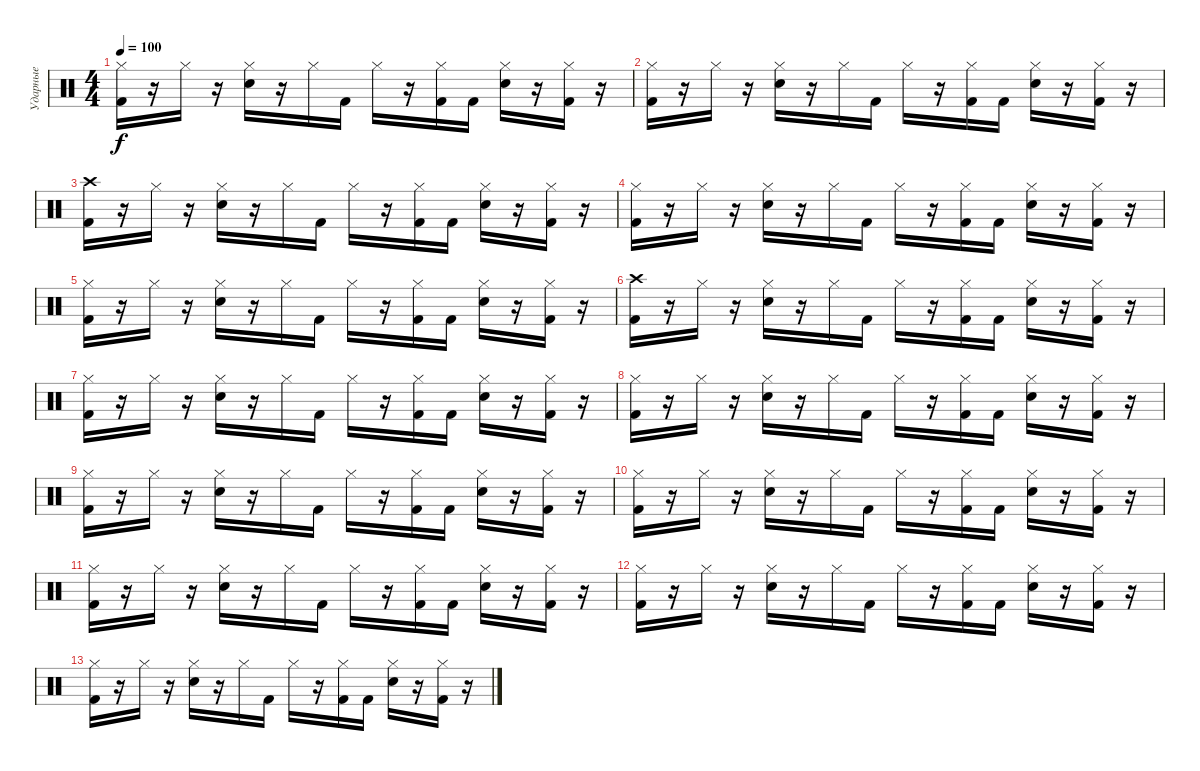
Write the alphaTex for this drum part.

\track ("Ударные" "Ударные") {instrument percussion}
\staff {score}
\articulation defaults
\ts (4 4)
\tempo 100
\clef neutral
\ks c
("Kick (hit) 2" "Hi-Hat (closed)").16{dy f} r.16 "Hi-Hat (closed)".16 r.16 ("Electric Snare (hit)" "Hi-Hat (closed)").16 r.16 "Hi-Hat (closed)".16 "Kick (hit) 2".16 "Hi-Hat (closed)".16 r.16 ("Kick (hit) 2" "Hi-Hat (closed)").16 "Kick (hit) 2".16 ("Electric Snare (hit)" "Hi-Hat (closed)").16 r.16 ("Kick (hit) 2" "Hi-Hat (closed)").16 r.16 |
("Kick (hit) 2" "Hi-Hat (closed)").16 r.16 "Hi-Hat (closed)".16 r.16 ("Electric Snare (hit)" "Hi-Hat (closed)").16 r.16 "Hi-Hat (closed)".16 "Kick (hit) 2".16 "Hi-Hat (closed)".16 r.16 ("Kick (hit) 2" "Hi-Hat (closed)").16 "Kick (hit) 2".16 ("Electric Snare (hit)" "Hi-Hat (closed)").16 r.16 ("Kick (hit) 2" "Hi-Hat (closed)").16 r.16 |
("Kick (hit) 2" "Crash high (hit)").16 r.16 "Hi-Hat (closed)".16 r.16 ("Electric Snare (hit)" "Hi-Hat (closed)").16 r.16 "Hi-Hat (closed)".16 "Kick (hit) 2".16 "Hi-Hat (closed)".16 r.16 ("Kick (hit) 2" "Hi-Hat (closed)").16 "Kick (hit) 2".16 ("Electric Snare (hit)" "Hi-Hat (closed)").16 r.16 ("Kick (hit) 2" "Hi-Hat (closed)").16 r.16 |
("Kick (hit) 2" "Hi-Hat (closed)").16 r.16 "Hi-Hat (closed)".16 r.16 ("Electric Snare (hit)" "Hi-Hat (closed)").16 r.16 "Hi-Hat (closed)".16 "Kick (hit) 2".16 "Hi-Hat (closed)".16 r.16 ("Kick (hit) 2" "Hi-Hat (closed)").16 "Kick (hit) 2".16 ("Electric Snare (hit)" "Hi-Hat (closed)").16 r.16 ("Kick (hit) 2" "Hi-Hat (closed)").16 r.16 |
("Kick (hit) 2" "Hi-Hat (closed)").16 r.16 "Hi-Hat (closed)".16 r.16 ("Electric Snare (hit)" "Hi-Hat (closed)").16 r.16 "Hi-Hat (closed)".16 "Kick (hit) 2".16 "Hi-Hat (closed)".16 r.16 ("Kick (hit) 2" "Hi-Hat (closed)").16 "Kick (hit) 2".16 ("Electric Snare (hit)" "Hi-Hat (closed)").16 r.16 ("Kick (hit) 2" "Hi-Hat (closed)").16 r.16 |
("Kick (hit) 2" "Crash high (hit)").16 r.16 "Hi-Hat (closed)".16 r.16 ("Electric Snare (hit)" "Hi-Hat (closed)").16 r.16 "Hi-Hat (closed)".16 "Kick (hit) 2".16 "Hi-Hat (closed)".16 r.16 ("Kick (hit) 2" "Hi-Hat (closed)").16 "Kick (hit) 2".16 ("Electric Snare (hit)" "Hi-Hat (closed)").16 r.16 ("Kick (hit) 2" "Hi-Hat (closed)").16 r.16 |
("Kick (hit) 2" "Hi-Hat (closed)").16 r.16 "Hi-Hat (closed)".16 r.16 ("Electric Snare (hit)" "Hi-Hat (closed)").16 r.16 "Hi-Hat (closed)".16 "Kick (hit) 2".16 "Hi-Hat (closed)".16 r.16 ("Kick (hit) 2" "Hi-Hat (closed)").16 "Kick (hit) 2".16 ("Electric Snare (hit)" "Hi-Hat (closed)").16 r.16 ("Kick (hit) 2" "Hi-Hat (closed)").16 r.16 |
("Kick (hit) 2" "Hi-Hat (closed)").16 r.16 "Hi-Hat (closed)".16 r.16 ("Electric Snare (hit)" "Hi-Hat (closed)").16 r.16 "Hi-Hat (closed)".16 "Kick (hit) 2".16 "Hi-Hat (closed)".16 r.16 ("Kick (hit) 2" "Hi-Hat (closed)").16 "Kick (hit) 2".16 ("Electric Snare (hit)" "Hi-Hat (closed)").16 r.16 ("Kick (hit) 2" "Hi-Hat (closed)").16 r.16 |
("Kick (hit) 2" "Hi-Hat (closed)").16 r.16 "Hi-Hat (closed)".16 r.16 ("Electric Snare (hit)" "Hi-Hat (closed)").16 r.16 "Hi-Hat (closed)".16 "Kick (hit) 2".16 "Hi-Hat (closed)".16 r.16 ("Kick (hit) 2" "Hi-Hat (closed)").16 "Kick (hit) 2".16 ("Electric Snare (hit)" "Hi-Hat (closed)").16 r.16 ("Kick (hit) 2" "Hi-Hat (closed)").16 r.16 |
("Kick (hit) 2" "Hi-Hat (closed)").16 r.16 "Hi-Hat (closed)".16 r.16 ("Electric Snare (hit)" "Hi-Hat (closed)").16 r.16 "Hi-Hat (closed)".16 "Kick (hit) 2".16 "Hi-Hat (closed)".16 r.16 ("Kick (hit) 2" "Hi-Hat (closed)").16 "Kick (hit) 2".16 ("Electric Snare (hit)" "Hi-Hat (closed)").16 r.16 ("Kick (hit) 2" "Hi-Hat (closed)").16 r.16 |
("Kick (hit) 2" "Hi-Hat (closed)").16 r.16 "Hi-Hat (closed)".16 r.16 ("Electric Snare (hit)" "Hi-Hat (closed)").16 r.16 "Hi-Hat (closed)".16 "Kick (hit) 2".16 "Hi-Hat (closed)".16 r.16 ("Kick (hit) 2" "Hi-Hat (closed)").16 "Kick (hit) 2".16 ("Electric Snare (hit)" "Hi-Hat (closed)").16 r.16 ("Kick (hit) 2" "Hi-Hat (closed)").16 r.16 |
("Kick (hit) 2" "Hi-Hat (closed)").16 r.16 "Hi-Hat (closed)".16 r.16 ("Electric Snare (hit)" "Hi-Hat (closed)").16 r.16 "Hi-Hat (closed)".16 "Kick (hit) 2".16 "Hi-Hat (closed)".16 r.16 ("Kick (hit) 2" "Hi-Hat (closed)").16 "Kick (hit) 2".16 ("Electric Snare (hit)" "Hi-Hat (closed)").16 r.16 ("Kick (hit) 2" "Hi-Hat (closed)").16 r.16 |
("Kick (hit) 2" "Hi-Hat (closed)").16 r.16 "Hi-Hat (closed)".16 r.16 ("Electric Snare (hit)" "Hi-Hat (closed)").16 r.16 "Hi-Hat (closed)".16 "Kick (hit) 2".16 "Hi-Hat (closed)".16 r.16 ("Kick (hit) 2" "Hi-Hat (closed)").16 "Kick (hit) 2".16 ("Electric Snare (hit)" "Hi-Hat (closed)").16 r.16 ("Kick (hit) 2" "Hi-Hat (closed)").16 r.16
